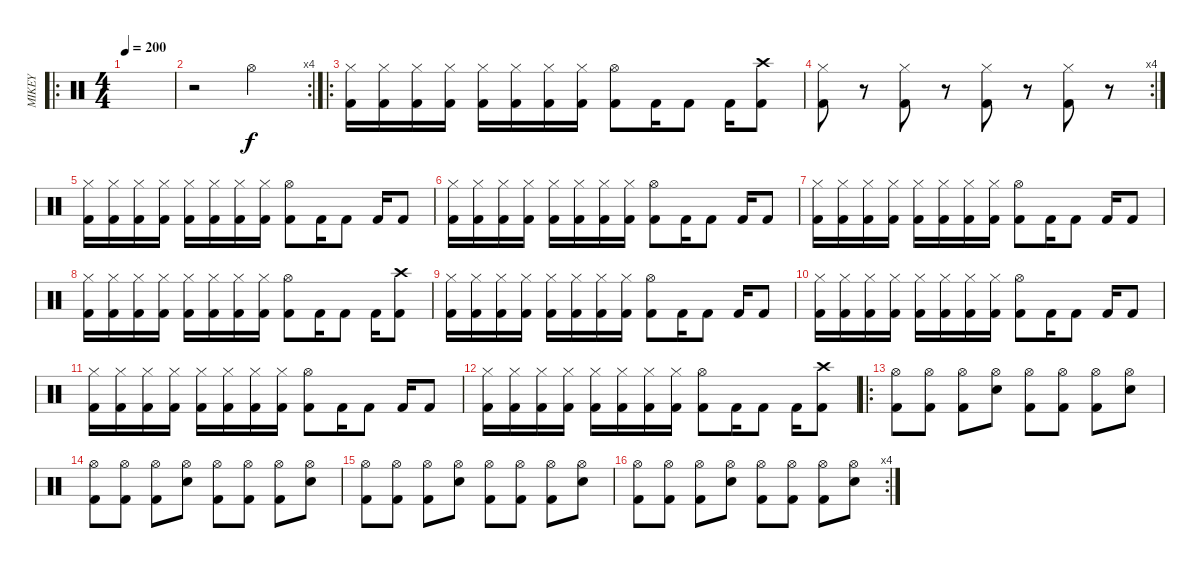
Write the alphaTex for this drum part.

\track ("MIKEY" "MIKEY") {instrument percussion}
\staff {score}
\articulation defaults
\ro
\ts (4 4)
\tempo 200
\clef neutral
\ks c
|
\rc 4
r.2 "Hi-Hat (open)".2 |
\ro
("Hi-Hat (closed)" "Kick (hit) 2").16 ("Hi-Hat (closed)" "Kick (hit) 2").16 ("Hi-Hat (closed)" "Kick (hit) 2").16 ("Hi-Hat (closed)" "Kick (hit) 2").16 ("Hi-Hat (closed)" "Kick (hit) 2").16 ("Hi-Hat (closed)" "Kick (hit) 2").16 ("Hi-Hat (closed)" "Kick (hit) 2").16 ("Hi-Hat (closed)" "Kick (hit) 2").16 ("Hi-Hat (open)" "Kick (hit) 2").8 "Kick (hit) 2".16 "Kick (hit) 2".8 "Kick (hit) 2".16 ("Crash high (hit)" "Kick (hit) 2").8 |
\rc 4
("Hi-Hat (closed)" "Kick (hit) 2").8 r.8 ("Hi-Hat (closed)" "Kick (hit) 2").8 r.8 ("Hi-Hat (closed)" "Kick (hit) 2").8 r.8 ("Hi-Hat (closed)" "Kick (hit) 2").8 r.8 |
("Hi-Hat (closed)" "Kick (hit) 2").16 ("Hi-Hat (closed)" "Kick (hit) 2").16 ("Hi-Hat (closed)" "Kick (hit) 2").16 ("Hi-Hat (closed)" "Kick (hit) 2").16 ("Hi-Hat (closed)" "Kick (hit) 2").16 ("Hi-Hat (closed)" "Kick (hit) 2").16 ("Hi-Hat (closed)" "Kick (hit) 2").16 ("Hi-Hat (closed)" "Kick (hit) 2").16 ("Hi-Hat (open)" "Kick (hit) 2").8 "Kick (hit) 2".16 "Kick (hit) 2".8 "Kick (hit) 2".16 "Kick (hit) 2".8 |
("Hi-Hat (closed)" "Kick (hit) 2").16 ("Hi-Hat (closed)" "Kick (hit) 2").16 ("Hi-Hat (closed)" "Kick (hit) 2").16 ("Hi-Hat (closed)" "Kick (hit) 2").16 ("Hi-Hat (closed)" "Kick (hit) 2").16 ("Hi-Hat (closed)" "Kick (hit) 2").16 ("Hi-Hat (closed)" "Kick (hit) 2").16 ("Hi-Hat (closed)" "Kick (hit) 2").16 ("Hi-Hat (open)" "Kick (hit) 2").8 "Kick (hit) 2".16 "Kick (hit) 2".8 "Kick (hit) 2".16 "Kick (hit) 2".8 |
("Hi-Hat (closed)" "Kick (hit) 2").16 ("Hi-Hat (closed)" "Kick (hit) 2").16 ("Hi-Hat (closed)" "Kick (hit) 2").16 ("Hi-Hat (closed)" "Kick (hit) 2").16 ("Hi-Hat (closed)" "Kick (hit) 2").16 ("Hi-Hat (closed)" "Kick (hit) 2").16 ("Hi-Hat (closed)" "Kick (hit) 2").16 ("Hi-Hat (closed)" "Kick (hit) 2").16 ("Hi-Hat (open)" "Kick (hit) 2").8 "Kick (hit) 2".16 "Kick (hit) 2".8 "Kick (hit) 2".16 "Kick (hit) 2".8 |
("Hi-Hat (closed)" "Kick (hit) 2").16 ("Hi-Hat (closed)" "Kick (hit) 2").16 ("Hi-Hat (closed)" "Kick (hit) 2").16 ("Hi-Hat (closed)" "Kick (hit) 2").16 ("Hi-Hat (closed)" "Kick (hit) 2").16 ("Hi-Hat (closed)" "Kick (hit) 2").16 ("Hi-Hat (closed)" "Kick (hit) 2").16 ("Hi-Hat (closed)" "Kick (hit) 2").16 ("Hi-Hat (open)" "Kick (hit) 2").8 "Kick (hit) 2".16 "Kick (hit) 2".8 "Kick (hit) 2".16 ("Crash high (hit)" "Kick (hit) 2").8 |
("Hi-Hat (closed)" "Kick (hit) 2").16 ("Hi-Hat (closed)" "Kick (hit) 2").16 ("Hi-Hat (closed)" "Kick (hit) 2").16 ("Hi-Hat (closed)" "Kick (hit) 2").16 ("Hi-Hat (closed)" "Kick (hit) 2").16 ("Hi-Hat (closed)" "Kick (hit) 2").16 ("Hi-Hat (closed)" "Kick (hit) 2").16 ("Hi-Hat (closed)" "Kick (hit) 2").16 ("Hi-Hat (open)" "Kick (hit) 2").8 "Kick (hit) 2".16 "Kick (hit) 2".8 "Kick (hit) 2".16 "Kick (hit) 2".8 |
("Hi-Hat (closed)" "Kick (hit) 2").16 ("Hi-Hat (closed)" "Kick (hit) 2").16 ("Hi-Hat (closed)" "Kick (hit) 2").16 ("Hi-Hat (closed)" "Kick (hit) 2").16 ("Hi-Hat (closed)" "Kick (hit) 2").16 ("Hi-Hat (closed)" "Kick (hit) 2").16 ("Hi-Hat (closed)" "Kick (hit) 2").16 ("Hi-Hat (closed)" "Kick (hit) 2").16 ("Hi-Hat (open)" "Kick (hit) 2").8 "Kick (hit) 2".16 "Kick (hit) 2".8 "Kick (hit) 2".16 "Kick (hit) 2".8 |
("Hi-Hat (closed)" "Kick (hit) 2").16 ("Hi-Hat (closed)" "Kick (hit) 2").16 ("Hi-Hat (closed)" "Kick (hit) 2").16 ("Hi-Hat (closed)" "Kick (hit) 2").16 ("Hi-Hat (closed)" "Kick (hit) 2").16 ("Hi-Hat (closed)" "Kick (hit) 2").16 ("Hi-Hat (closed)" "Kick (hit) 2").16 ("Hi-Hat (closed)" "Kick (hit) 2").16 ("Hi-Hat (open)" "Kick (hit) 2").8 "Kick (hit) 2".16 "Kick (hit) 2".8 "Kick (hit) 2".16 "Kick (hit) 2".8 |
("Hi-Hat (closed)" "Kick (hit) 2").16 ("Hi-Hat (closed)" "Kick (hit) 2").16 ("Hi-Hat (closed)" "Kick (hit) 2").16 ("Hi-Hat (closed)" "Kick (hit) 2").16 ("Hi-Hat (closed)" "Kick (hit) 2").16 ("Hi-Hat (closed)" "Kick (hit) 2").16 ("Hi-Hat (closed)" "Kick (hit) 2").16 ("Hi-Hat (closed)" "Kick (hit) 2").16 ("Hi-Hat (open)" "Kick (hit) 2").8 "Kick (hit) 2".16 "Kick (hit) 2".8 "Kick (hit) 2".16 ("Crash high (hit)" "Kick (hit) 2").8 |
\ro
("Hi-Hat (open)" "Kick (hit) 2").8 ("Hi-Hat (open)" "Kick (hit) 2").8 ("Hi-Hat (open)" "Kick (hit) 2").8 ("Hi-Hat (open)" "Electric Snare (hit)").8 ("Hi-Hat (open)" "Kick (hit) 2").8 ("Hi-Hat (open)" "Kick (hit) 2").8 ("Hi-Hat (open)" "Kick (hit) 2").8 ("Hi-Hat (open)" "Electric Snare (hit)").8 |
("Hi-Hat (open)" "Kick (hit) 2").8 ("Hi-Hat (open)" "Kick (hit) 2").8 ("Hi-Hat (open)" "Kick (hit) 2").8 ("Hi-Hat (open)" "Electric Snare (hit)").8 ("Hi-Hat (open)" "Kick (hit) 2").8 ("Hi-Hat (open)" "Kick (hit) 2").8 ("Hi-Hat (open)" "Kick (hit) 2").8 ("Hi-Hat (open)" "Electric Snare (hit)").8 |
("Hi-Hat (open)" "Kick (hit) 2").8 ("Hi-Hat (open)" "Kick (hit) 2").8 ("Hi-Hat (open)" "Kick (hit) 2").8 ("Hi-Hat (open)" "Electric Snare (hit)").8 ("Hi-Hat (open)" "Kick (hit) 2").8 ("Hi-Hat (open)" "Kick (hit) 2").8 ("Hi-Hat (open)" "Kick (hit) 2").8 ("Hi-Hat (open)" "Electric Snare (hit)").8 |
\rc 4
("Hi-Hat (open)" "Kick (hit) 2").8 ("Hi-Hat (open)" "Kick (hit) 2").8 ("Hi-Hat (open)" "Kick (hit) 2").8 ("Hi-Hat (open)" "Electric Snare (hit)").8 ("Hi-Hat (open)" "Kick (hit) 2").8 ("Hi-Hat (open)" "Kick (hit) 2").8 ("Hi-Hat (open)" "Kick (hit) 2").8 ("Hi-Hat (open)" "Electric Snare (hit)").8
